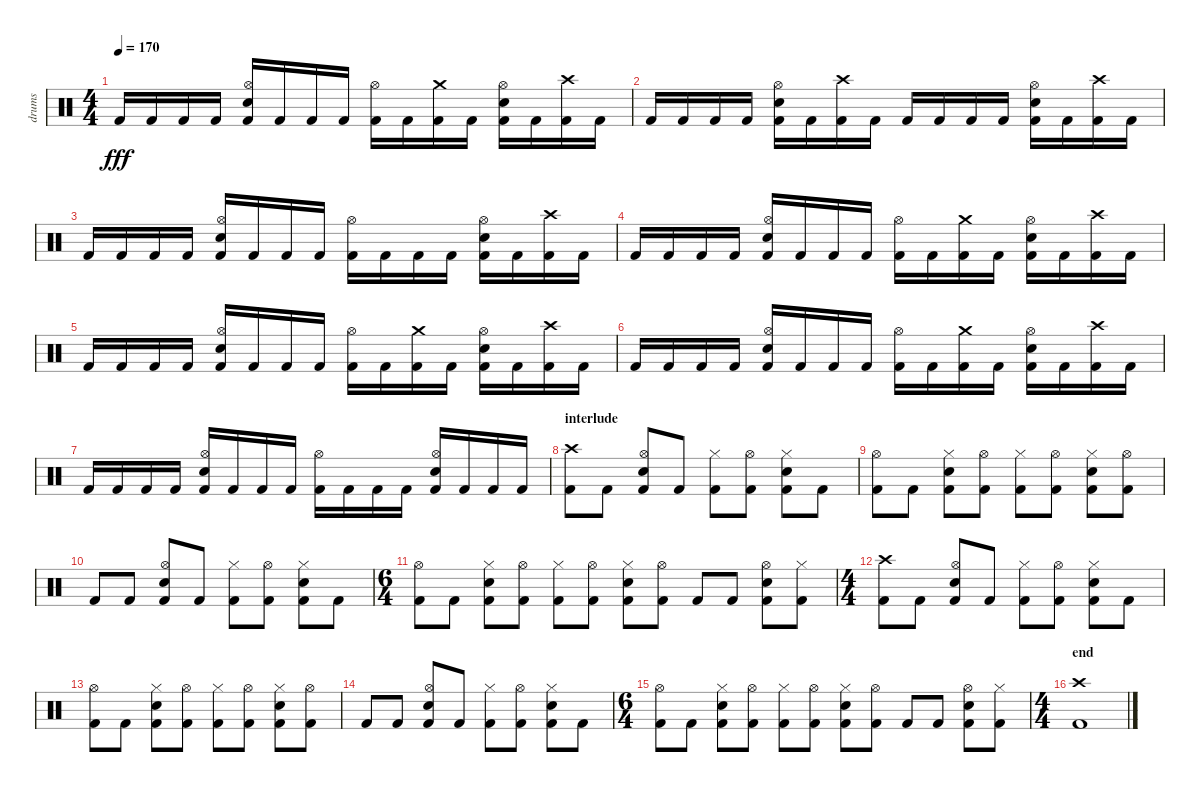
\track ("drums" "drums") {instrument percussion}
\staff {score}
\articulation defaults
\ts (4 4)
\tempo 170
\clef neutral
\ks c "Kick (hit) 2".16{dy fff} "Kick (hit) 2".16 "Kick (hit) 2".16 "Kick (hit) 2".16
("Hi-Hat (open)" "Snare (hit) 2" "Kick (hit) 2").16 "Kick (hit) 2".16 "Kick (hit) 2".16 "Kick (hit) 2".16 ("Hi-Hat (open)" "Kick (hit) 2").16 "Kick (hit) 2".16 ("Crash medium (hit)" "Kick (hit) 2").16 "Kick (hit) 2".16 ("Hi-Hat (open)" "Snare (hit) 2" "Kick (hit) 2").16 "Kick (hit) 2".16 ("Crash high (hit)" "Kick (hit) 2").16 "Kick (hit) 2".16 |
"Kick (hit) 2".16 "Kick (hit) 2".16 "Kick (hit) 2".16 "Kick (hit) 2".16 ("Hi-Hat (open)" "Snare (hit) 2" "Kick (hit) 2").16 "Kick (hit) 2".16 ("Crash high (hit)" "Kick (hit) 2").16 "Kick (hit) 2".16 "Kick (hit) 2".16 "Kick (hit) 2".16 "Kick (hit) 2".16 "Kick (hit) 2".16 ("Hi-Hat (open)" "Snare (hit) 2" "Kick (hit) 2").16 "Kick (hit) 2".16 ("Crash high (hit)" "Kick (hit) 2").16 "Kick (hit) 2".16 |
"Kick (hit) 2".16 "Kick (hit) 2".16 "Kick (hit) 2".16 "Kick (hit) 2".16 ("Hi-Hat (open)" "Snare (hit) 2" "Kick (hit) 2").16 "Kick (hit) 2".16 "Kick (hit) 2".16 "Kick (hit) 2".16 ("Hi-Hat (open)" "Kick (hit) 2").16 "Kick (hit) 2".16 "Kick (hit) 2".16 "Kick (hit) 2".16 ("Hi-Hat (open)" "Snare (hit) 2" "Kick (hit) 2").16 "Kick (hit) 2".16 ("Crash high (hit)" "Kick (hit) 2").16 "Kick (hit) 2".16 |
"Kick (hit) 2".16 "Kick (hit) 2".16 "Kick (hit) 2".16 "Kick (hit) 2".16 ("Hi-Hat (open)" "Snare (hit) 2" "Kick (hit) 2").16 "Kick (hit) 2".16 "Kick (hit) 2".16 "Kick (hit) 2".16 ("Hi-Hat (open)" "Kick (hit) 2").16 "Kick (hit) 2".16 ("Crash medium (hit)" "Kick (hit) 2").16 "Kick (hit) 2".16 ("Hi-Hat (open)" "Snare (hit) 2" "Kick (hit) 2").16 "Kick (hit) 2".16 ("Crash high (hit)" "Kick (hit) 2").16 "Kick (hit) 2".16 |
"Kick (hit) 2".16 "Kick (hit) 2".16 "Kick (hit) 2".16 "Kick (hit) 2".16 ("Hi-Hat (open)" "Snare (hit) 2" "Kick (hit) 2").16 "Kick (hit) 2".16 "Kick (hit) 2".16 "Kick (hit) 2".16 ("Hi-Hat (open)" "Kick (hit) 2").16 "Kick (hit) 2".16 ("Crash medium (hit)" "Kick (hit) 2").16 "Kick (hit) 2".16 ("Hi-Hat (open)" "Snare (hit) 2" "Kick (hit) 2").16 "Kick (hit) 2".16 ("Crash high (hit)" "Kick (hit) 2").16 "Kick (hit) 2".16 |
"Kick (hit) 2".16 "Kick (hit) 2".16 "Kick (hit) 2".16 "Kick (hit) 2".16 ("Hi-Hat (open)" "Snare (hit) 2" "Kick (hit) 2").16 "Kick (hit) 2".16 "Kick (hit) 2".16 "Kick (hit) 2".16 ("Hi-Hat (open)" "Kick (hit) 2").16 "Kick (hit) 2".16 ("Crash medium (hit)" "Kick (hit) 2").16 "Kick (hit) 2".16 ("Hi-Hat (open)" "Snare (hit) 2" "Kick (hit) 2").16 "Kick (hit) 2".16 ("Crash high (hit)" "Kick (hit) 2").16 "Kick (hit) 2".16 |
"Kick (hit) 2".16 "Kick (hit) 2".16 "Kick (hit) 2".16 "Kick (hit) 2".16 ("Hi-Hat (open)" "Snare (hit) 2" "Kick (hit) 2").16 "Kick (hit) 2".16 "Kick (hit) 2".16 "Kick (hit) 2".16 ("Hi-Hat (open)" "Kick (hit) 2").16 "Kick (hit) 2".16 "Kick (hit) 2".16 "Kick (hit) 2".16 ("Hi-Hat (open)" "Snare (hit) 2" "Kick (hit) 2").16 "Kick (hit) 2".16 "Kick (hit) 2".16 "Kick (hit) 2".16 |
\section ("" "interlude")
("Crash high (hit)" "Kick (hit) 2").8 "Kick (hit) 2".8 ("Hi-Hat (open)" "Snare (hit) 2" "Kick (hit) 2").8 "Kick (hit) 2".8 ("Hi-Hat (closed)" "Kick (hit) 2").8 ("Hi-Hat (open)" "Kick (hit) 2").8 ("Hi-Hat (closed)" "Snare (hit) 2" "Kick (hit) 2").8 "Kick (hit) 2".8 |
("Hi-Hat (open)" "Kick (hit) 2").8 "Kick (hit) 2".8 ("Hi-Hat (closed)" "Snare (hit) 2" "Kick (hit) 2").8 ("Hi-Hat (open)" "Kick (hit) 2").8 ("Hi-Hat (closed)" "Kick (hit) 2").8 ("Hi-Hat (open)" "Kick (hit) 2").8 ("Hi-Hat (closed)" "Snare (hit) 2" "Kick (hit) 2").8 ("Hi-Hat (open)" "Kick (hit) 2").8 |
"Kick (hit) 2".8 "Kick (hit) 2".8 ("Hi-Hat (open)" "Snare (hit) 2" "Kick (hit) 2").8 "Kick (hit) 2".8 ("Hi-Hat (closed)" "Kick (hit) 2").8 ("Hi-Hat (open)" "Kick (hit) 2").8 ("Hi-Hat (closed)" "Snare (hit) 2" "Kick (hit) 2").8 "Kick (hit) 2".8 |
\ts (6 4)
("Hi-Hat (open)" "Kick (hit) 2").8 "Kick (hit) 2".8 ("Hi-Hat (closed)" "Snare (hit) 2" "Kick (hit) 2").8 ("Hi-Hat (open)" "Kick (hit) 2").8 ("Hi-Hat (closed)" "Kick (hit) 2").8 ("Hi-Hat (open)" "Kick (hit) 2").8 ("Hi-Hat (closed)" "Snare (hit) 2" "Kick (hit) 2").8 ("Hi-Hat (open)" "Kick (hit) 2").8 "Kick (hit) 2".8 "Kick (hit) 2".8 ("Hi-Hat (open)" "Snare (hit) 2" "Kick (hit) 2").8 ("Hi-Hat (closed)" "Kick (hit) 2").8 |
\ts (4 4)
("Crash high (hit)" "Kick (hit) 2").8 "Kick (hit) 2".8 ("Hi-Hat (open)" "Snare (hit) 2" "Kick (hit) 2").8 "Kick (hit) 2".8 ("Hi-Hat (closed)" "Kick (hit) 2").8 ("Hi-Hat (open)" "Kick (hit) 2").8 ("Hi-Hat (closed)" "Snare (hit) 2" "Kick (hit) 2").8 "Kick (hit) 2".8 |
("Hi-Hat (open)" "Kick (hit) 2").8 "Kick (hit) 2".8 ("Hi-Hat (closed)" "Snare (hit) 2" "Kick (hit) 2").8 ("Hi-Hat (open)" "Kick (hit) 2").8 ("Hi-Hat (closed)" "Kick (hit) 2").8 ("Hi-Hat (open)" "Kick (hit) 2").8 ("Hi-Hat (closed)" "Snare (hit) 2" "Kick (hit) 2").8 ("Hi-Hat (open)" "Kick (hit) 2").8 |
"Kick (hit) 2".8 "Kick (hit) 2".8 ("Hi-Hat (open)" "Snare (hit) 2" "Kick (hit) 2").8 "Kick (hit) 2".8 ("Hi-Hat (closed)" "Kick (hit) 2").8 ("Hi-Hat (open)" "Kick (hit) 2").8 ("Hi-Hat (closed)" "Snare (hit) 2" "Kick (hit) 2").8 "Kick (hit) 2".8 |
\ts (6 4)
("Hi-Hat (open)" "Kick (hit) 2").8 "Kick (hit) 2".8 ("Hi-Hat (closed)" "Snare (hit) 2" "Kick (hit) 2").8 ("Hi-Hat (open)" "Kick (hit) 2").8 ("Hi-Hat (closed)" "Kick (hit) 2").8 ("Hi-Hat (open)" "Kick (hit) 2").8 ("Hi-Hat (closed)" "Snare (hit) 2" "Kick (hit) 2").8 ("Hi-Hat (open)" "Kick (hit) 2").8 "Kick (hit) 2".8 "Kick (hit) 2".8 ("Hi-Hat (open)" "Snare (hit) 2" "Kick (hit) 2").8 ("Hi-Hat (closed)" "Kick (hit) 2").8 |
\ts (4 4)
\section ("" "end")
("Crash high (hit)" "Kick (hit) 2").1
